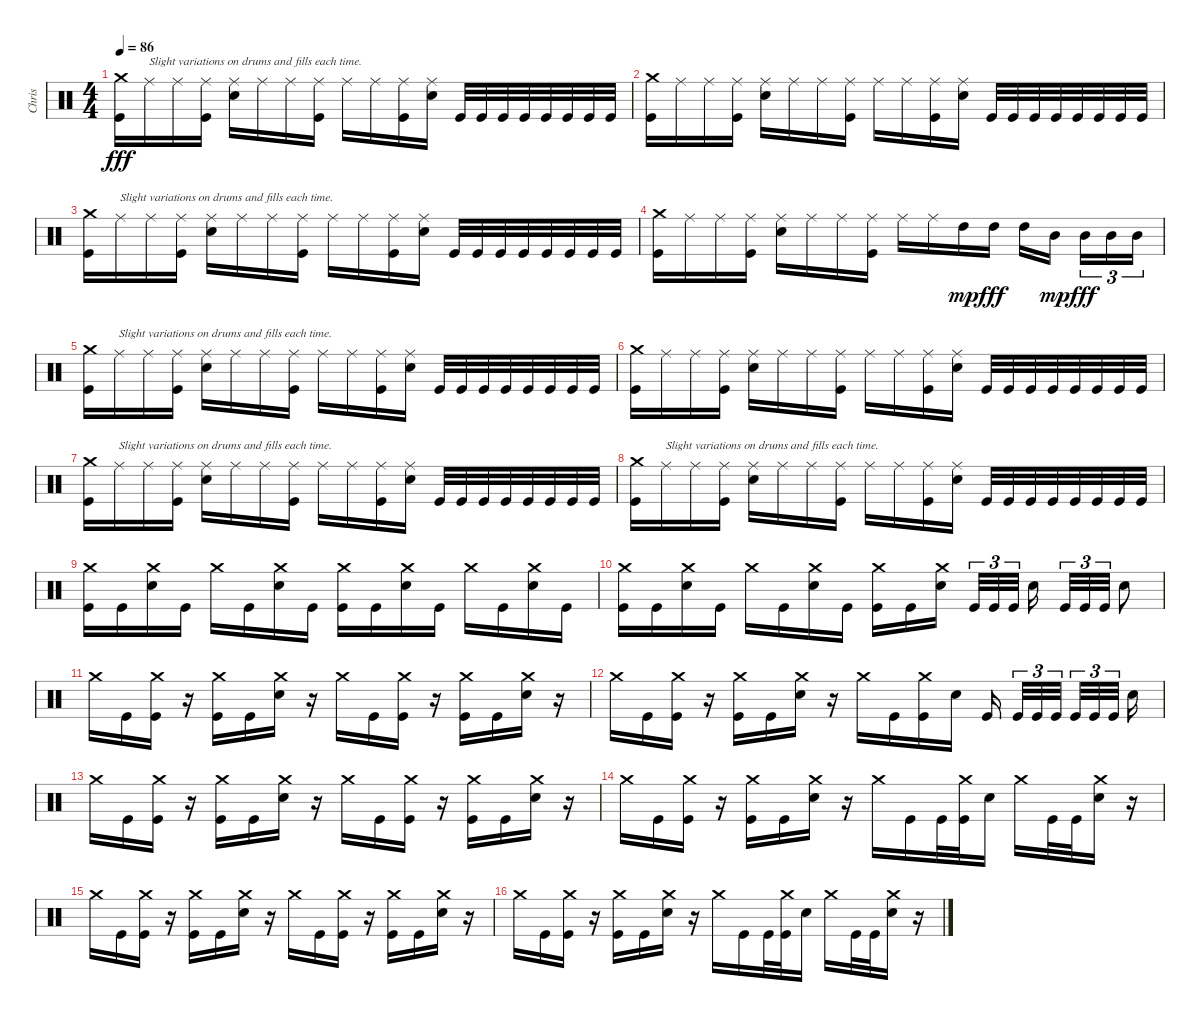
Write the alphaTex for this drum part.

\track ("Chris" "Chris") {instrument percussion}
\staff {score}
\articulation defaults
\ts (4 4)
\tempo 86
\clef neutral
\ks c
("Crash medium (hit)" "Kick (hit)").16{dy fff} "Ride (middle)".16{txt "Slight variations on drums and fills each time."} "Ride (middle)".16 ("Ride (middle)" "Kick (hit)").16 ("Ride (middle)" "Snare (hit) 2").16 "Ride (middle)".16 "Ride (middle)".16 ("Ride (middle)" "Kick (hit)").16 "Ride (middle)".16 "Ride (middle)".16 ("Ride (middle)" "Kick (hit)").16 ("Ride (middle)" "Snare (hit) 2").16 "Kick (hit)".32 "Kick (hit)".32 "Kick (hit)".32 "Kick (hit)".32 "Kick (hit)".32 "Kick (hit)".32 "Kick (hit)".32 "Kick (hit)".32 |
("Crash medium (hit)" "Kick (hit)").16 "Ride (middle)".16 "Ride (middle)".16 ("Ride (middle)" "Kick (hit)").16 ("Ride (middle)" "Snare (hit) 2").16 "Ride (middle)".16 "Ride (middle)".16 ("Ride (middle)" "Kick (hit)").16 "Ride (middle)".16 "Ride (middle)".16 ("Ride (middle)" "Kick (hit)").16 ("Ride (middle)" "Snare (hit) 2").16 "Kick (hit)".32 "Kick (hit)".32 "Kick (hit)".32 "Kick (hit)".32 "Kick (hit)".32 "Kick (hit)".32 "Kick (hit)".32 "Kick (hit)".32 |
("Crash medium (hit)" "Kick (hit)").16 "Ride (middle)".16{txt "Slight variations on drums and fills each time."} "Ride (middle)".16 ("Ride (middle)" "Kick (hit)").16 ("Ride (middle)" "Snare (hit) 2").16 "Ride (middle)".16 "Ride (middle)".16 ("Ride (middle)" "Kick (hit)").16 "Ride (middle)".16 "Ride (middle)".16 ("Ride (middle)" "Kick (hit)").16 ("Ride (middle)" "Snare (hit) 2").16 "Kick (hit)".32 "Kick (hit)".32 "Kick (hit)".32 "Kick (hit)".32 "Kick (hit)".32 "Kick (hit)".32 "Kick (hit)".32 "Kick (hit)".32 |
("Crash medium (hit)" "Kick (hit)").16 "Ride (middle)".16 "Ride (middle)".16 ("Ride (middle)" "Kick (hit)").16 ("Ride (middle)" "Snare (hit) 2").16 "Ride (middle)".16 "Ride (middle)".16 ("Ride (middle)" "Kick (hit)").16 "Ride (middle)".16 "Ride (middle)".16 "High Tom (hit)".16{dy mp} "High Tom (hit)".16{dy fff} "High Tom (hit)".16 "Mid Tom (hit)".16{dy mp beam splitsecondary} "Mid Tom (hit)".16{tu (3 2) dy fff} "Mid Tom (hit)".16{tu (3 2)} "Mid Tom (hit)".16{tu (3 2)} |
("Crash medium (hit)" "Kick (hit)").16 "Ride (middle)".16{txt "Slight variations on drums and fills each time."} "Ride (middle)".16 ("Ride (middle)" "Kick (hit)").16 ("Ride (middle)" "Snare (hit) 2").16 "Ride (middle)".16 "Ride (middle)".16 ("Ride (middle)" "Kick (hit)").16 "Ride (middle)".16 "Ride (middle)".16 ("Ride (middle)" "Kick (hit)").16 ("Ride (middle)" "Snare (hit) 2").16 "Kick (hit)".32 "Kick (hit)".32 "Kick (hit)".32 "Kick (hit)".32 "Kick (hit)".32 "Kick (hit)".32 "Kick (hit)".32 "Kick (hit)".32 |
("Crash medium (hit)" "Kick (hit)").16 "Ride (middle)".16 "Ride (middle)".16 ("Ride (middle)" "Kick (hit)").16 ("Ride (middle)" "Snare (hit) 2").16 "Ride (middle)".16 "Ride (middle)".16 ("Ride (middle)" "Kick (hit)").16 "Ride (middle)".16 "Ride (middle)".16 ("Ride (middle)" "Kick (hit)").16 ("Ride (middle)" "Snare (hit) 2").16 "Kick (hit)".32 "Kick (hit)".32 "Kick (hit)".32 "Kick (hit)".32 "Kick (hit)".32 "Kick (hit)".32 "Kick (hit)".32 "Kick (hit)".32 |
("Crash medium (hit)" "Kick (hit)").16 "Ride (middle)".16{txt "Slight variations on drums and fills each time."} "Ride (middle)".16 ("Ride (middle)" "Kick (hit)").16 ("Ride (middle)" "Snare (hit) 2").16 "Ride (middle)".16 "Ride (middle)".16 ("Ride (middle)" "Kick (hit)").16 "Ride (middle)".16 "Ride (middle)".16 ("Ride (middle)" "Kick (hit)").16 ("Ride (middle)" "Snare (hit) 2").16 "Kick (hit)".32 "Kick (hit)".32 "Kick (hit)".32 "Kick (hit)".32 "Kick (hit)".32 "Kick (hit)".32 "Kick (hit)".32 "Kick (hit)".32 |
("Crash medium (hit)" "Kick (hit)").16 "Ride (middle)".16{txt "Slight variations on drums and fills each time."} "Ride (middle)".16 ("Ride (middle)" "Kick (hit)").16 ("Ride (middle)" "Snare (hit) 2").16 "Ride (middle)".16 "Ride (middle)".16 ("Ride (middle)" "Kick (hit)").16 "Ride (middle)".16 "Ride (middle)".16 ("Ride (middle)" "Kick (hit)").16 ("Ride (middle)" "Snare (hit) 2").16 "Kick (hit)".32 "Kick (hit)".32 "Kick (hit)".32 "Kick (hit)".32 "Kick (hit)".32 "Kick (hit)".32 "Kick (hit)".32 "Kick (hit)".32 |
("Crash medium (hit)" "Kick (hit)").16 "Kick (hit)".16 ("Crash medium (hit)" "Snare (hit) 2").16 "Kick (hit)".16 "Crash medium (hit)".16 "Kick (hit)".16 ("Crash medium (hit)" "Snare (hit) 2").16 "Kick (hit)".16 ("Crash medium (hit)" "Kick (hit)").16 "Kick (hit)".16 ("Crash medium (hit)" "Snare (hit) 2").16 "Kick (hit)".16 "Crash medium (hit)".16 "Kick (hit)".16 ("Crash medium (hit)" "Snare (hit) 2").16 "Kick (hit)".16 |
("Crash medium (hit)" "Kick (hit)").16 "Kick (hit)".16 ("Crash medium (hit)" "Snare (hit) 2").16 "Kick (hit)".16 "Crash medium (hit)".16 "Kick (hit)".16 ("Crash medium (hit)" "Snare (hit) 2").16 "Kick (hit)".16 ("Crash medium (hit)" "Kick (hit)").16 "Kick (hit)".16 ("Crash medium (hit)" "Snare (hit) 2").16{beam splitsecondary} "Kick (hit)".32{tu (3 2)} "Kick (hit)".32{tu (3 2)} "Kick (hit)".32{tu (3 2)} "Snare (hit) 2".16{beam splitsecondary} "Kick (hit)".32{tu (3 2)} "Kick (hit)".32{tu (3 2)} "Kick (hit)".32{tu (3 2)} "Snare (hit) 2".8 |
"Crash medium (hit)".16 "Kick (hit)".16 ("Crash medium (hit)" "Kick (hit)").16 r.16 ("Crash medium (hit)" "Kick (hit)").16 "Kick (hit)".16 ("Crash medium (hit)" "Snare (hit) 2").16 r.16 "Crash medium (hit)".16 "Kick (hit)".16 ("Crash medium (hit)" "Kick (hit)").16 r.16 ("Crash medium (hit)" "Kick (hit)").16 "Kick (hit)".16 ("Crash medium (hit)" "Snare (hit) 2").16 r.16 |
"Crash medium (hit)".16 "Kick (hit)".16 ("Crash medium (hit)" "Kick (hit)").16 r.16 ("Crash medium (hit)" "Kick (hit)").16 "Kick (hit)".16 ("Crash medium (hit)" "Snare (hit) 2").16 r.16 "Crash medium (hit)".16 "Kick (hit)".16 ("Crash medium (hit)" "Kick (hit)").16 "Snare (hit) 2".16 "Kick (hit)".16{beam splitsecondary} "Kick (hit)".32{tu (3 2)} "Kick (hit)".32{tu (3 2)} "Kick (hit)".32{tu (3 2) beam splitsecondary} "Kick (hit)".32{tu (3 2)} "Kick (hit)".32{tu (3 2)} "Kick (hit)".32{tu (3 2) beam splitsecondary} "Snare (hit) 2".16 |
"Crash medium (hit)".16 "Kick (hit)".16 ("Crash medium (hit)" "Kick (hit)").16 r.16 ("Crash medium (hit)" "Kick (hit)").16 "Kick (hit)".16 ("Crash medium (hit)" "Snare (hit) 2").16 r.16 "Crash medium (hit)".16 "Kick (hit)".16 ("Crash medium (hit)" "Kick (hit)").16 r.16 ("Crash medium (hit)" "Kick (hit)").16 "Kick (hit)".16 ("Crash medium (hit)" "Snare (hit) 2").16 r.16 |
"Crash medium (hit)".16 "Kick (hit)".16 ("Crash medium (hit)" "Kick (hit)").16 r.16 ("Crash medium (hit)" "Kick (hit)").16 "Kick (hit)".16 ("Crash medium (hit)" "Snare (hit) 2").16 r.16 "Crash medium (hit)".16 "Kick (hit)".16 "Kick (hit)".32 ("Crash medium (hit)" "Kick (hit)").32 "Snare (hit) 2".16 "Crash medium (hit)".16 "Kick (hit)".32 "Kick (hit)".32 ("Crash medium (hit)" "Snare (hit) 2").16 r.16 |
"Crash medium (hit)".16 "Kick (hit)".16 ("Crash medium (hit)" "Kick (hit)").16 r.16 ("Crash medium (hit)" "Kick (hit)").16 "Kick (hit)".16 ("Crash medium (hit)" "Snare (hit) 2").16 r.16 "Crash medium (hit)".16 "Kick (hit)".16 ("Crash medium (hit)" "Kick (hit)").16 r.16 ("Crash medium (hit)" "Kick (hit)").16 "Kick (hit)".16 ("Crash medium (hit)" "Snare (hit) 2").16 r.16 |
"Crash medium (hit)".16 "Kick (hit)".16 ("Crash medium (hit)" "Kick (hit)").16 r.16 ("Crash medium (hit)" "Kick (hit)").16 "Kick (hit)".16 ("Crash medium (hit)" "Snare (hit) 2").16 r.16 "Crash medium (hit)".16 "Kick (hit)".16 "Kick (hit)".32 ("Crash medium (hit)" "Kick (hit)").32 "Snare (hit) 2".16 "Crash medium (hit)".16 "Kick (hit)".32 "Kick (hit)".32 ("Crash medium (hit)" "Snare (hit) 2").16 r.16
